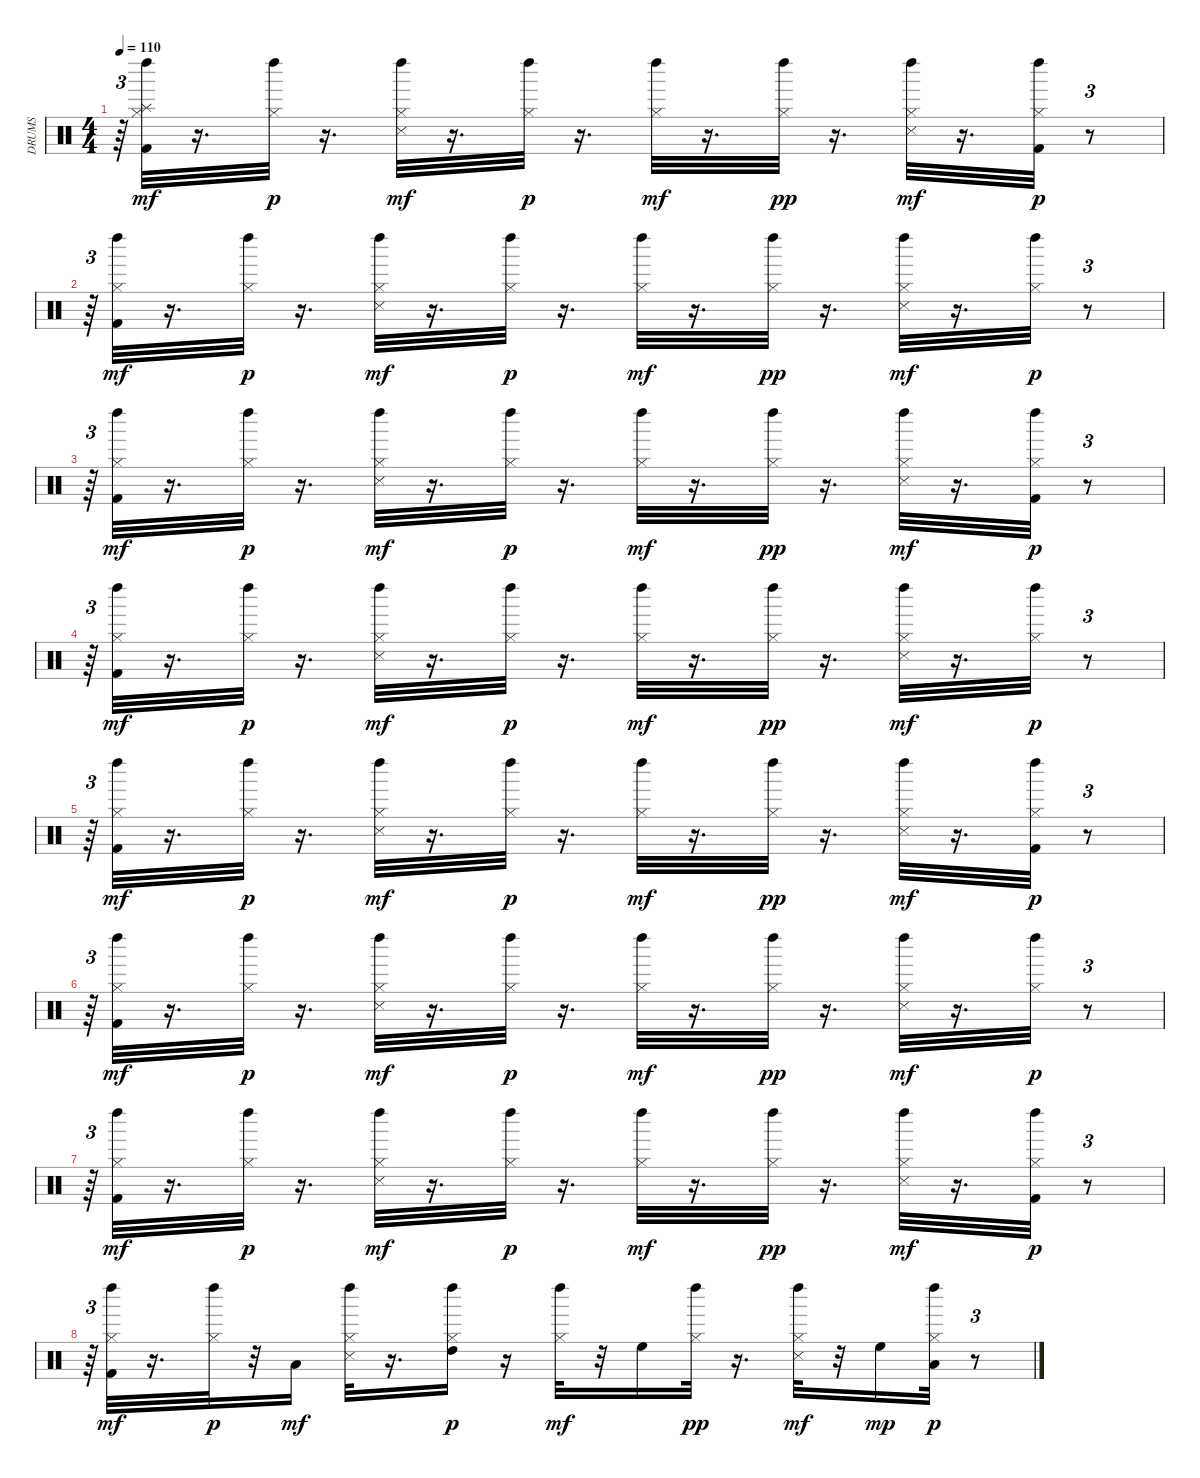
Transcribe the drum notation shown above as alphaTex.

\track ("DRUMS" "DRUMS") {instrument percussion}
\staff {score}
\articulation defaults
\ts (4 4)
\tempo 110
\clef neutral
\ks c
r.64{tu (3 2) dy mf} ("Kick (hit) 2" "Hi-Hat (closed)" "Splash (hit)" "Left Maraca (hit)").32 r.16{d} ("Hi-Hat (closed)" "Left Maraca (hit)").32{dy p} r.16{d} ("Snare (side stick) 3" "Hi-Hat (closed)" "Left Maraca (hit)").32{dy mf} r.16{d} ("Hi-Hat (closed)" "Left Maraca (hit)").32{dy p} r.16{d} ("Hi-Hat (closed)" "Left Maraca (hit)").32{dy mf} r.16{d} ("Hi-Hat (closed)" "Left Maraca (hit)").32{dy pp} r.16{d} ("Snare (side stick) 3" "Hi-Hat (closed)" "Left Maraca (hit)").32{dy mf} r.16{d} ("Kick (hit) 2" "Hi-Hat (closed)" "Left Maraca (hit)").32{dy p} r.8{tu (3 2)} |
r.64{tu (3 2)} ("Kick (hit) 2" "Hi-Hat (closed)" "Left Maraca (hit)").32{dy mf} r.16{d} ("Hi-Hat (closed)" "Left Maraca (hit)").32{dy p} r.16{d} ("Snare (side stick) 3" "Hi-Hat (closed)" "Left Maraca (hit)").32{dy mf} r.16{d} ("Hi-Hat (closed)" "Left Maraca (hit)").32{dy p} r.16{d} ("Hi-Hat (closed)" "Left Maraca (hit)").32{dy mf} r.16{d} ("Hi-Hat (closed)" "Left Maraca (hit)").32{dy pp} r.16{d} ("Snare (side stick) 3" "Hi-Hat (closed)" "Left Maraca (hit)").32{dy mf} r.16{d} ("Hi-Hat (closed)" "Left Maraca (hit)").32{dy p} r.8{tu (3 2)} |
r.64{tu (3 2)} ("Kick (hit) 2" "Hi-Hat (closed)" "Left Maraca (hit)").32{dy mf} r.16{d} ("Hi-Hat (closed)" "Left Maraca (hit)").32{dy p} r.16{d} ("Snare (side stick) 3" "Hi-Hat (closed)" "Left Maraca (hit)").32{dy mf} r.16{d} ("Hi-Hat (closed)" "Left Maraca (hit)").32{dy p} r.16{d} ("Hi-Hat (closed)" "Left Maraca (hit)").32{dy mf} r.16{d} ("Hi-Hat (closed)" "Left Maraca (hit)").32{dy pp} r.16{d} ("Snare (side stick) 3" "Hi-Hat (closed)" "Left Maraca (hit)").32{dy mf} r.16{d} ("Kick (hit) 2" "Hi-Hat (closed)" "Left Maraca (hit)").32{dy p} r.8{tu (3 2)} |
r.64{tu (3 2)} ("Kick (hit) 2" "Hi-Hat (closed)" "Left Maraca (hit)").32{dy mf} r.16{d} ("Hi-Hat (closed)" "Left Maraca (hit)").32{dy p} r.16{d} ("Snare (side stick) 3" "Hi-Hat (closed)" "Left Maraca (hit)").32{dy mf} r.16{d} ("Hi-Hat (closed)" "Left Maraca (hit)").32{dy p} r.16{d} ("Hi-Hat (closed)" "Left Maraca (hit)").32{dy mf} r.16{d} ("Hi-Hat (closed)" "Left Maraca (hit)").32{dy pp} r.16{d} ("Snare (side stick) 3" "Hi-Hat (closed)" "Left Maraca (hit)").32{dy mf} r.16{d} ("Hi-Hat (closed)" "Left Maraca (hit)").32{dy p} r.8{tu (3 2)} |
r.64{tu (3 2)} ("Kick (hit) 2" "Hi-Hat (closed)" "Left Maraca (hit)").32{dy mf} r.16{d} ("Hi-Hat (closed)" "Left Maraca (hit)").32{dy p} r.16{d} ("Snare (side stick) 3" "Hi-Hat (closed)" "Left Maraca (hit)").32{dy mf} r.16{d} ("Hi-Hat (closed)" "Left Maraca (hit)").32{dy p} r.16{d} ("Hi-Hat (closed)" "Left Maraca (hit)").32{dy mf} r.16{d} ("Hi-Hat (closed)" "Left Maraca (hit)").32{dy pp} r.16{d} ("Snare (side stick) 3" "Hi-Hat (closed)" "Left Maraca (hit)").32{dy mf} r.16{d} ("Kick (hit) 2" "Hi-Hat (closed)" "Left Maraca (hit)").32{dy p} r.8{tu (3 2)} |
r.64{tu (3 2)} ("Kick (hit) 2" "Hi-Hat (closed)" "Left Maraca (hit)").32{dy mf} r.16{d} ("Hi-Hat (closed)" "Left Maraca (hit)").32{dy p} r.16{d} ("Snare (side stick) 3" "Hi-Hat (closed)" "Left Maraca (hit)").32{dy mf} r.16{d} ("Hi-Hat (closed)" "Left Maraca (hit)").32{dy p} r.16{d} ("Hi-Hat (closed)" "Left Maraca (hit)").32{dy mf} r.16{d} ("Hi-Hat (closed)" "Left Maraca (hit)").32{dy pp} r.16{d} ("Snare (side stick) 3" "Hi-Hat (closed)" "Left Maraca (hit)").32{dy mf} r.16{d} ("Hi-Hat (closed)" "Left Maraca (hit)").32{dy p} r.8{tu (3 2)} |
r.64{tu (3 2)} ("Kick (hit) 2" "Hi-Hat (closed)" "Left Maraca (hit)").32{dy mf} r.16{d} ("Hi-Hat (closed)" "Left Maraca (hit)").32{dy p} r.16{d} ("Snare (side stick) 3" "Hi-Hat (closed)" "Left Maraca (hit)").32{dy mf} r.16{d} ("Hi-Hat (closed)" "Left Maraca (hit)").32{dy p} r.16{d} ("Hi-Hat (closed)" "Left Maraca (hit)").32{dy mf} r.16{d} ("Hi-Hat (closed)" "Left Maraca (hit)").32{dy pp} r.16{d} ("Snare (side stick) 3" "Hi-Hat (closed)" "Left Maraca (hit)").32{dy mf} r.16{d} ("Kick (hit) 2" "Hi-Hat (closed)" "Left Maraca (hit)").32{dy p} r.8{tu (3 2)} |
r.64{tu (3 2)} ("Kick (hit) 2" "Hi-Hat (closed)" "Left Maraca (hit)").32{dy mf} r.16{d} ("Hi-Hat (closed)" "Left Maraca (hit)").32{dy p} r.32 "Low Tom (hit)".16{dy mf} ("Snare (side stick) 3" "Hi-Hat (closed)" "Left Maraca (hit)").32 r.16{d} ("Hi-Hat (closed)" "High Tom (hit)" "Left Maraca (hit)").16{dy p} r.16 ("Hi-Hat (closed)" "Left Maraca (hit)").32{dy mf} r.32 "High Floor Tom (hit)".16 ("Hi-Hat (closed)" "Left Maraca (hit)").32{dy pp} r.16{d} ("Snare (side stick) 3" "Hi-Hat (closed)" "Left Maraca (hit)").32{dy mf} r.32 "High Floor Tom (hit)".16{dy mp} ("Hi-Hat (closed)" "Low Tom (hit)" "Left Maraca (hit)").32{dy p} r.8{tu (3 2)}
